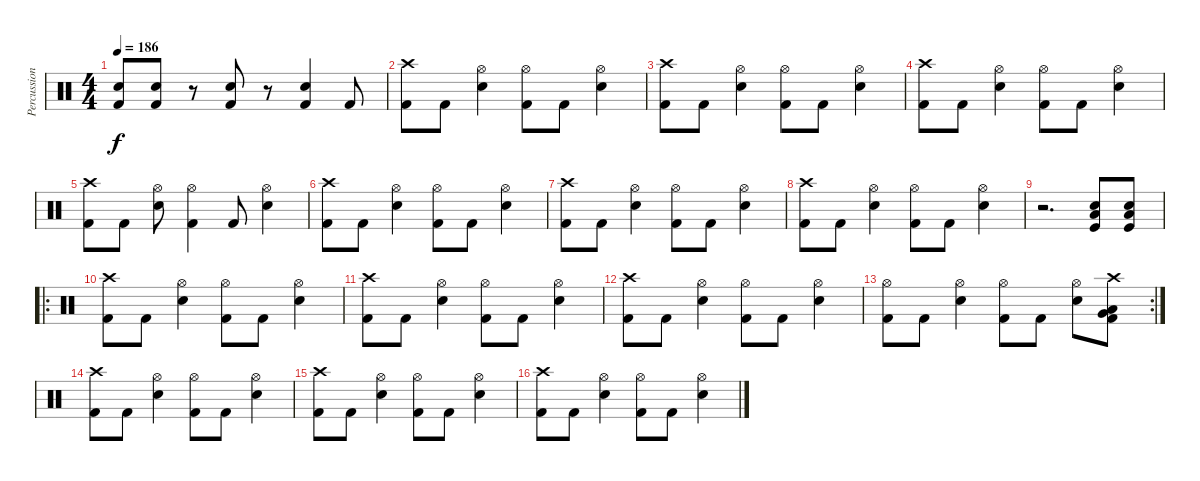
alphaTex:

\track ("Percussion" "Percussion") {instrument percussion}
\staff {score}
\articulation defaults
\ts (4 4)
\tempo 186
\clef neutral
\ks c
("Electric Snare (hit)" "Kick (hit) 2").8{dy f} ("Electric Snare (hit)" "Kick (hit) 2").8 r.8 ("Electric Snare (hit)" "Kick (hit) 2").8 r.8 ("Electric Snare (hit)" "Kick (hit) 2").4 "Kick (hit) 2".8 |
("Crash high (hit)" "Kick (hit) 2").8 "Kick (hit) 2".8 ("Hi-Hat (open)" "Electric Snare (hit)").4 ("Hi-Hat (open)" "Kick (hit) 2").8 "Kick (hit) 2".8 ("Hi-Hat (open)" "Electric Snare (hit)").4 |
("Crash high (hit)" "Kick (hit) 2").8 "Kick (hit) 2".8 ("Hi-Hat (open)" "Electric Snare (hit)").4 ("Hi-Hat (open)" "Kick (hit) 2").8 "Kick (hit) 2".8 ("Hi-Hat (open)" "Electric Snare (hit)").4 |
("Crash high (hit)" "Kick (hit) 2").8 "Kick (hit) 2".8 ("Hi-Hat (open)" "Electric Snare (hit)").4 ("Hi-Hat (open)" "Kick (hit) 2").8 "Kick (hit) 2".8 ("Hi-Hat (open)" "Electric Snare (hit)").4 |
("Crash high (hit)" "Kick (hit) 2").8 "Kick (hit) 2".8 ("Hi-Hat (open)" "Electric Snare (hit)").8 ("Hi-Hat (open)" "Kick (hit) 2").4 "Kick (hit) 2".8 ("Hi-Hat (open)" "Electric Snare (hit)").4 |
("Crash high (hit)" "Kick (hit) 2").8 "Kick (hit) 2".8 ("Hi-Hat (open)" "Electric Snare (hit)").4 ("Hi-Hat (open)" "Kick (hit) 2").8 "Kick (hit) 2".8 ("Hi-Hat (open)" "Electric Snare (hit)").4 |
("Crash high (hit)" "Kick (hit) 2").8 "Kick (hit) 2".8 ("Hi-Hat (open)" "Electric Snare (hit)").4 ("Hi-Hat (open)" "Kick (hit) 2").8 "Kick (hit) 2".8 ("Hi-Hat (open)" "Electric Snare (hit)").4 |
("Crash high (hit)" "Kick (hit) 2").8 "Kick (hit) 2".8 ("Hi-Hat (open)" "Electric Snare (hit)").4 ("Hi-Hat (open)" "Kick (hit) 2").8 "Kick (hit) 2".8 ("Hi-Hat (open)" "Electric Snare (hit)").4 |
r.2{d} ("Kick (hit)" "Low Tom (hit)" "Snare (hit) 2").8 ("Kick (hit)" "Low Tom (hit)" "Snare (hit) 2").8 |
\ro
("Crash high (hit)" "Kick (hit) 2").8 "Kick (hit) 2".8 ("Hi-Hat (open)" "Electric Snare (hit)").4 ("Hi-Hat (open)" "Kick (hit) 2").8 "Kick (hit) 2".8 ("Hi-Hat (open)" "Electric Snare (hit)").4 |
("Crash high (hit)" "Kick (hit) 2").8 "Kick (hit) 2".8 ("Hi-Hat (open)" "Electric Snare (hit)").4 ("Hi-Hat (open)" "Kick (hit) 2").8 "Kick (hit) 2".8 ("Hi-Hat (open)" "Electric Snare (hit)").4 |
("Crash high (hit)" "Kick (hit) 2").8 "Kick (hit) 2".8 ("Hi-Hat (open)" "Electric Snare (hit)").4 ("Hi-Hat (open)" "Kick (hit) 2").8 "Kick (hit) 2".8 ("Hi-Hat (open)" "Electric Snare (hit)").4 |
\rc 2
("Hi-Hat (open)" "Kick (hit) 2").8 "Kick (hit) 2".8 ("Hi-Hat (open)" "Electric Snare (hit)").4 ("Hi-Hat (open)" "Kick (hit) 2").8 "Kick (hit) 2".8 ("Hi-Hat (open)" "Electric Snare (hit)").8 ("Crash high (hit)" "Very Low Tom (hit)" "Kick (hit) 2" "Low Tom (hit)").8 |
("Crash high (hit)" "Kick (hit) 2").8 "Kick (hit) 2".8 ("Hi-Hat (open)" "Electric Snare (hit)").4 ("Hi-Hat (open)" "Kick (hit) 2").8 "Kick (hit) 2".8 ("Hi-Hat (open)" "Electric Snare (hit)").4 |
("Crash high (hit)" "Kick (hit) 2").8 "Kick (hit) 2".8 ("Hi-Hat (open)" "Electric Snare (hit)").4 ("Hi-Hat (open)" "Kick (hit) 2").8 "Kick (hit) 2".8 ("Hi-Hat (open)" "Electric Snare (hit)").4 |
("Crash high (hit)" "Kick (hit) 2").8 "Kick (hit) 2".8 ("Hi-Hat (open)" "Electric Snare (hit)").4 ("Hi-Hat (open)" "Kick (hit) 2").8 "Kick (hit) 2".8 ("Hi-Hat (open)" "Electric Snare (hit)").4
